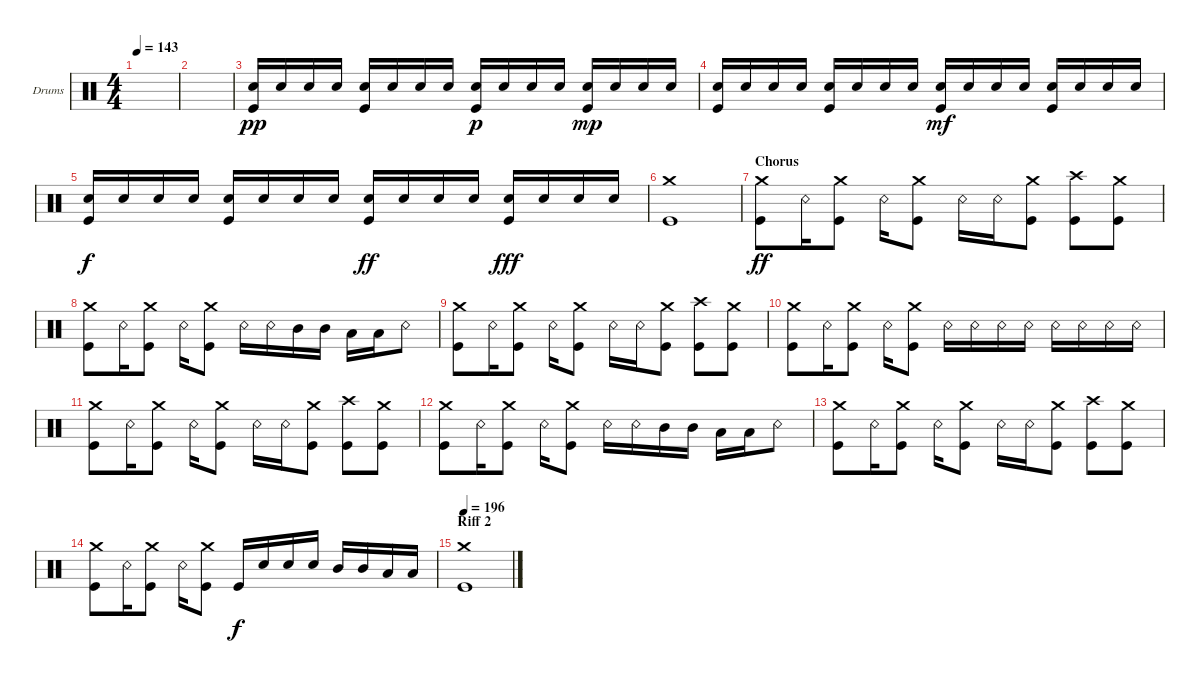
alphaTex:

\defaultSystemsLayout 4
\bracketExtendMode groupsimilarinstruments
\firstSystemTrackNameOrientation horizontal
\otherSystemsTrackNameOrientation horizontal
\track ("Nao - Drums" "Drums") {instrument percussion}
\staff {score}
\articulation defaults
\ts (4 4)
\tempo 143
\clef neutral
\ks c
|
|
("Kick (hit)" "Snare (hit) 2").16{dy pp} "Snare (hit) 2".16 "Snare (hit) 2".16 "Snare (hit) 2".16 ("Snare (hit) 2" "Kick (hit)").16 "Snare (hit) 2".16 "Snare (hit) 2".16 "Snare (hit) 2".16 ("Snare (hit) 2" "Kick (hit)").16{dy p} "Snare (hit) 2".16 "Snare (hit) 2".16 "Snare (hit) 2".16 ("Snare (hit) 2" "Kick (hit)").16{dy mp} "Snare (hit) 2".16 "Snare (hit) 2".16 "Snare (hit) 2".16 |
("Kick (hit)" "Snare (hit) 2").16 "Snare (hit) 2".16 "Snare (hit) 2".16 "Snare (hit) 2".16 ("Snare (hit) 2" "Kick (hit)").16 "Snare (hit) 2".16 "Snare (hit) 2".16 "Snare (hit) 2".16 ("Snare (hit) 2" "Kick (hit)").16{dy mf} "Snare (hit) 2".16 "Snare (hit) 2".16 "Snare (hit) 2".16 ("Snare (hit) 2" "Kick (hit)").16 "Snare (hit) 2".16 "Snare (hit) 2".16 "Snare (hit) 2".16 |
("Kick (hit)" "Snare (hit) 2").16{dy f} "Snare (hit) 2".16 "Snare (hit) 2".16 "Snare (hit) 2".16 ("Snare (hit) 2" "Kick (hit)").16 "Snare (hit) 2".16 "Snare (hit) 2".16 "Snare (hit) 2".16 ("Snare (hit) 2" "Kick (hit)").16{dy ff} "Snare (hit) 2".16 "Snare (hit) 2".16 "Snare (hit) 2".16 ("Snare (hit) 2" "Kick (hit)").16{dy fff} "Snare (hit) 2".16 "Snare (hit) 2".16 "Snare (hit) 2".16 |
("Crash medium (hit)" "Kick (hit)").1 |
\section ("" "Chorus")
("Crash medium (hit)" "Kick (hit)").8{dy ff} "Snare (rim shot)".16 ("Crash medium (hit)" "Kick (hit)").8 "Snare (rim shot)".16 ("Crash medium (hit)" "Kick (hit)").8 "Snare (rim shot)".16 "Snare (rim shot)".16 ("Kick (hit)" "Crash medium (hit)").8 ("Crash high (hit)" "Kick (hit)").8 ("Crash medium (hit)" "Kick (hit)").8 |
("Crash medium (hit)" "Kick (hit)").8 "Snare (rim shot)".16 ("Crash medium (hit)" "Kick (hit)").8 "Snare (rim shot)".16 ("Crash medium (hit)" "Kick (hit)").8 "Snare (rim shot)".16 "Snare (rim shot)".16 "Mid Tom (hit)".16 "Mid Tom (hit)".16 "Low Tom (hit)".16 "Low Tom (hit)".16 "Snare (rim shot)".8 |
("Crash medium (hit)" "Kick (hit)").8 "Snare (rim shot)".16 ("Crash medium (hit)" "Kick (hit)").8 "Snare (rim shot)".16 ("Crash medium (hit)" "Kick (hit)").8 "Snare (rim shot)".16 "Snare (rim shot)".16 ("Kick (hit)" "Crash medium (hit)").8 ("Crash high (hit)" "Kick (hit)").8 ("Crash medium (hit)" "Kick (hit)").8 |
("Crash medium (hit)" "Kick (hit)").8 "Snare (rim shot)".16 ("Crash medium (hit)" "Kick (hit)").8 "Snare (rim shot)".16 ("Crash medium (hit)" "Kick (hit)").8 "Snare (rim shot)".16 "Snare (rim shot)".16 "Snare (rim shot)".16 "Snare (rim shot)".16 "Snare (rim shot)".16 "Snare (rim shot)".16 "Snare (rim shot)".16 "Snare (rim shot)".16 |
("Crash medium (hit)" "Kick (hit)").8 "Snare (rim shot)".16 ("Crash medium (hit)" "Kick (hit)").8 "Snare (rim shot)".16 ("Crash medium (hit)" "Kick (hit)").8 "Snare (rim shot)".16 "Snare (rim shot)".16 ("Kick (hit)" "Crash medium (hit)").8 ("Crash high (hit)" "Kick (hit)").8 ("Crash medium (hit)" "Kick (hit)").8 |
("Crash medium (hit)" "Kick (hit)").8 "Snare (rim shot)".16 ("Crash medium (hit)" "Kick (hit)").8 "Snare (rim shot)".16 ("Crash medium (hit)" "Kick (hit)").8 "Snare (rim shot)".16 "Snare (rim shot)".16 "Mid Tom (hit)".16 "Mid Tom (hit)".16 "Low Tom (hit)".16 "Low Tom (hit)".16 "Snare (rim shot)".8 |
("Crash medium (hit)" "Kick (hit)").8 "Snare (rim shot)".16 ("Crash medium (hit)" "Kick (hit)").8 "Snare (rim shot)".16 ("Crash medium (hit)" "Kick (hit)").8 "Snare (rim shot)".16 "Snare (rim shot)".16 ("Kick (hit)" "Crash medium (hit)").8 ("Crash high (hit)" "Kick (hit)").8 ("Crash medium (hit)" "Kick (hit)").8 |
("Crash medium (hit)" "Kick (hit)").8 "Snare (rim shot)".16 ("Crash medium (hit)" "Kick (hit)").8 "Snare (rim shot)".16 ("Crash medium (hit)" "Kick (hit)").8 "Kick (hit)".16{dy f} "Snare (hit) 2".16 "Snare (hit) 2".16 "Snare (hit) 2".16 "Mid Tom (hit)".16 "Mid Tom (hit)".16 "Low Tom (hit)".16 "Low Tom (hit)".16 |
\section ("" "Riff 2")
\tempo 196
("Crash medium (hit)" "Kick (hit)").1
